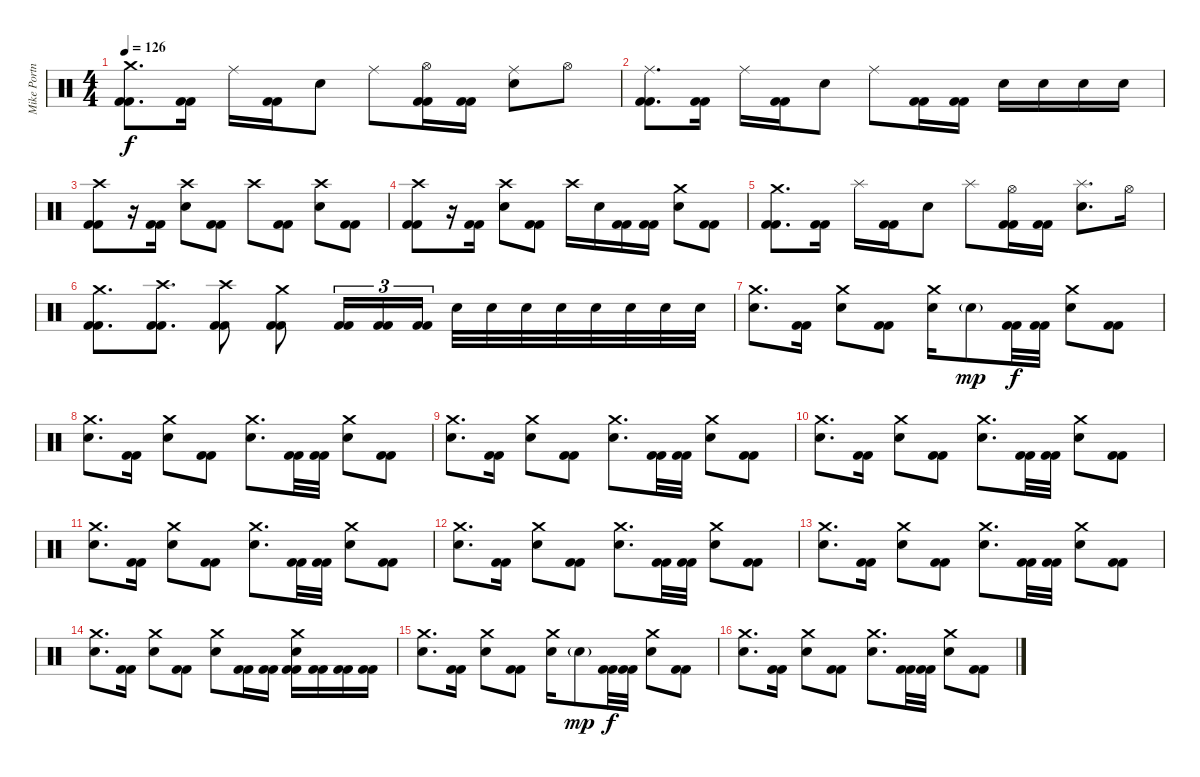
\track ("Mike Portnoy" "Mike Portn") {instrument percussion}
\staff {score}
\articulation defaults
\ts (4 4)
\tempo 126
\clef neutral
\ks c
("Crash medium (hit)" "Kick (hit) 2" "Kick (hit) 2").8{d dy f} ("Kick (hit) 2" "Kick (hit) 2").16 "Ride (middle)".16 ("Kick (hit) 2" "Kick (hit) 2").16 "Electric Snare (hit)".8 "Ride (middle)".8 ("Hi-Hat (open)" "Kick (hit) 2" "Kick (hit) 2").16 ("Kick (hit) 2" "Kick (hit) 2").16 ("Ride (middle)" "Electric Snare (hit)").8 "Hi-Hat (open)".8 |
("Ride (middle)" "Kick (hit) 2" "Kick (hit) 2").8{d} ("Kick (hit) 2" "Kick (hit) 2").16 "Ride (middle)".16 ("Kick (hit) 2" "Kick (hit) 2").16 "Electric Snare (hit)".8 "Ride (middle)".8 ("Kick (hit) 2" "Kick (hit) 2").16 ("Kick (hit) 2" "Kick (hit) 2").16 "Electric Snare (hit)".16 "Electric Snare (hit)".16 "Electric Snare (hit)".16 "Electric Snare (hit)".16 |
("Crash high (hit)" "Kick (hit) 2" "Kick (hit) 2").8 r.16 ("Kick (hit) 2" "Kick (hit) 2").16 ("Crash high (hit)" "Electric Snare (hit)").8 ("Kick (hit) 2" "Kick (hit) 2").8 "Crash high (hit)".8 ("Kick (hit) 2" "Kick (hit) 2").8 ("Crash high (hit)" "Electric Snare (hit)").8 ("Kick (hit) 2" "Kick (hit) 2").8 |
("Crash high (hit)" "Kick (hit) 2" "Kick (hit) 2").8 r.16 ("Kick (hit) 2" "Kick (hit) 2").16 ("Crash high (hit)" "Electric Snare (hit)").8 ("Kick (hit) 2" "Kick (hit) 2").8 "Crash high (hit)".16 "Electric Snare (hit)".16 ("Kick (hit) 2" "Kick (hit) 2").16 ("Kick (hit) 2" "Kick (hit) 2").16 ("Crash medium (hit)" "Electric Snare (hit)").8 ("Kick (hit) 2" "Kick (hit) 2").8 |
("Crash medium (hit)" "Kick (hit) 2" "Kick (hit) 2").8{d} ("Kick (hit) 2" "Kick (hit) 2").16 "Splash (hit)".16 ("Kick (hit) 2" "Kick (hit) 2").16 "Electric Snare (hit)".8 "Splash (hit)".8 ("Hi-Hat (open)" "Kick (hit) 2" "Kick (hit) 2").16 ("Kick (hit) 2" "Kick (hit) 2").16 ("Splash (hit)" "Electric Snare (hit)").8{d} "Hi-Hat (open)".16 |
("Crash medium (hit)" "Kick (hit) 2" "Kick (hit) 2").8{d} ("Crash high (hit)" "Kick (hit) 2" "Kick (hit) 2").8{d} ("Crash high (hit)" "Kick (hit) 2" "Kick (hit) 2").8 ("Crash medium (hit)" "Kick (hit) 2" "Kick (hit) 2").8 ("Kick (hit) 2" "Kick (hit) 2").16{tu (3 2)} ("Kick (hit) 2" "Kick (hit) 2").16{tu (3 2)} ("Kick (hit) 2" "Kick (hit) 2").16{tu (3 2)} "Electric Snare (hit)".32 "Electric Snare (hit)".32 "Electric Snare (hit)".32 "Electric Snare (hit)".32 "Electric Snare (hit)".32 "Electric Snare (hit)".32 "Electric Snare (hit)".32 "Electric Snare (hit)".32 |
("Crash medium (hit)" "Electric Snare (hit)").8{d} ("Kick (hit) 2" "Kick (hit) 2").16 ("Crash medium (hit)" "Electric Snare (hit)").8 ("Kick (hit) 2" "Kick (hit) 2").8 ("Crash medium (hit)" "Electric Snare (hit)").16 "Electric Snare (hit)"{g}.8{dy mp} ("Kick (hit) 2" "Kick (hit) 2").32{dy f} ("Kick (hit) 2" "Kick (hit) 2").32 ("Crash medium (hit)" "Electric Snare (hit)").8 ("Kick (hit) 2" "Kick (hit) 2").8 |
("Crash medium (hit)" "Electric Snare (hit)").8{d} ("Kick (hit) 2" "Kick (hit) 2").16 ("Crash medium (hit)" "Electric Snare (hit)").8 ("Kick (hit) 2" "Kick (hit) 2").8 ("Crash medium (hit)" "Electric Snare (hit)").8{d} ("Kick (hit) 2" "Kick (hit) 2").32 ("Kick (hit) 2" "Kick (hit) 2").32 ("Crash medium (hit)" "Electric Snare (hit)").8 ("Kick (hit) 2" "Kick (hit) 2").8 |
("Crash medium (hit)" "Electric Snare (hit)").8{d} ("Kick (hit) 2" "Kick (hit) 2").16 ("Crash medium (hit)" "Electric Snare (hit)").8 ("Kick (hit) 2" "Kick (hit) 2").8 ("Crash medium (hit)" "Electric Snare (hit)").8{d} ("Kick (hit) 2" "Kick (hit) 2").32 ("Kick (hit) 2" "Kick (hit) 2").32 ("Crash medium (hit)" "Electric Snare (hit)").8 ("Kick (hit) 2" "Kick (hit) 2").8 |
("Crash medium (hit)" "Electric Snare (hit)").8{d} ("Kick (hit) 2" "Kick (hit) 2").16 ("Crash medium (hit)" "Electric Snare (hit)").8 ("Kick (hit) 2" "Kick (hit) 2").8 ("Crash medium (hit)" "Electric Snare (hit)").8{d} ("Kick (hit) 2" "Kick (hit) 2").32 ("Kick (hit) 2" "Kick (hit) 2").32 ("Crash medium (hit)" "Electric Snare (hit)").8 ("Kick (hit) 2" "Kick (hit) 2").8 |
("Crash medium (hit)" "Electric Snare (hit)").8{d} ("Kick (hit) 2" "Kick (hit) 2").16 ("Crash medium (hit)" "Electric Snare (hit)").8 ("Kick (hit) 2" "Kick (hit) 2").8 ("Crash medium (hit)" "Electric Snare (hit)").8{d} ("Kick (hit) 2" "Kick (hit) 2").32 ("Kick (hit) 2" "Kick (hit) 2").32 ("Crash medium (hit)" "Electric Snare (hit)").8 ("Kick (hit) 2" "Kick (hit) 2").8 |
("Crash medium (hit)" "Electric Snare (hit)").8{d} ("Kick (hit) 2" "Kick (hit) 2").16 ("Crash medium (hit)" "Electric Snare (hit)").8 ("Kick (hit) 2" "Kick (hit) 2").8 ("Crash medium (hit)" "Electric Snare (hit)").8{d} ("Kick (hit) 2" "Kick (hit) 2").32 ("Kick (hit) 2" "Kick (hit) 2").32 ("Crash medium (hit)" "Electric Snare (hit)").8 ("Kick (hit) 2" "Kick (hit) 2").8 |
("Crash medium (hit)" "Electric Snare (hit)").8{d} ("Kick (hit) 2" "Kick (hit) 2").16 ("Crash medium (hit)" "Electric Snare (hit)").8 ("Kick (hit) 2" "Kick (hit) 2").8 ("Crash medium (hit)" "Electric Snare (hit)").8{d} ("Kick (hit) 2" "Kick (hit) 2").32 ("Kick (hit) 2" "Kick (hit) 2").32 ("Crash medium (hit)" "Electric Snare (hit)").8 ("Kick (hit) 2" "Kick (hit) 2").8 |
("Crash medium (hit)" "Electric Snare (hit)").8{d} ("Kick (hit) 2" "Kick (hit) 2").16 ("Crash medium (hit)" "Electric Snare (hit)").8 ("Kick (hit) 2" "Kick (hit) 2").8 ("Crash medium (hit)" "Electric Snare (hit)").8 ("Kick (hit) 2" "Kick (hit) 2").16 ("Kick (hit) 2" "Kick (hit) 2").16 ("Crash medium (hit)" "Electric Snare (hit)" "Kick (hit) 2" "Kick (hit) 2").16 ("Kick (hit) 2" "Kick (hit) 2").16 ("Kick (hit) 2" "Kick (hit) 2").16 ("Kick (hit) 2" "Kick (hit) 2").16 |
("Crash medium (hit)" "Electric Snare (hit)").8{d} ("Kick (hit) 2" "Kick (hit) 2").16 ("Crash medium (hit)" "Electric Snare (hit)").8 ("Kick (hit) 2" "Kick (hit) 2").8 ("Crash medium (hit)" "Electric Snare (hit)").16 "Electric Snare (hit)"{g}.8{dy mp} ("Kick (hit) 2" "Kick (hit) 2").32{dy f} ("Kick (hit) 2" "Kick (hit) 2").32 ("Crash medium (hit)" "Electric Snare (hit)").8 ("Kick (hit) 2" "Kick (hit) 2").8 |
("Crash medium (hit)" "Electric Snare (hit)").8{d} ("Kick (hit) 2" "Kick (hit) 2").16 ("Crash medium (hit)" "Electric Snare (hit)").8 ("Kick (hit) 2" "Kick (hit) 2").8 ("Crash medium (hit)" "Electric Snare (hit)").8{d} ("Kick (hit) 2" "Kick (hit) 2").32 ("Kick (hit) 2" "Kick (hit) 2").32 ("Crash medium (hit)" "Electric Snare (hit)").8 ("Kick (hit) 2" "Kick (hit) 2").8
